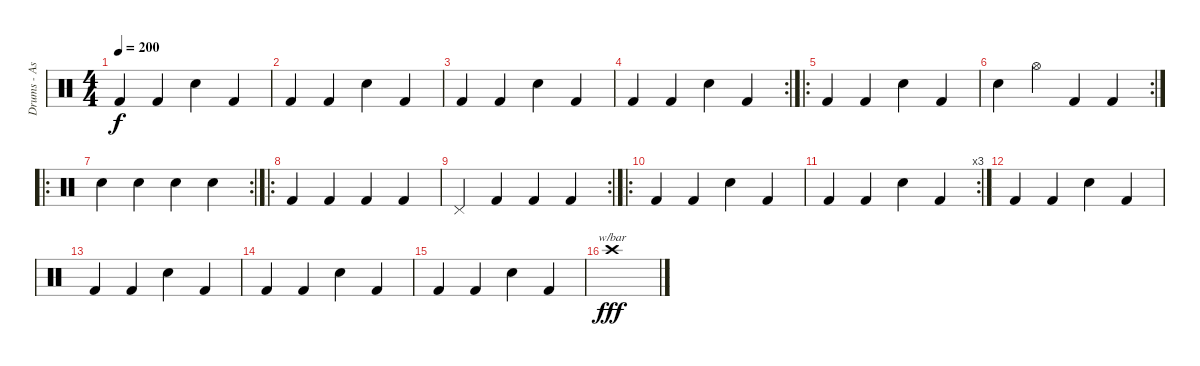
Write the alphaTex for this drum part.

\track ("Drums - Ash" "Drums - As") {instrument percussion}
\staff {score}
\articulation defaults
\ts (4 4)
\tempo 200
\clef neutral
\ks c "Kick (hit) 2".4{dy f} "Kick (hit) 2".4 "Snare (hit) 2".4 "Kick (hit) 2".4
|
"Kick (hit) 2".4 "Kick (hit) 2".4 "Snare (hit) 2".4 "Kick (hit) 2".4 |
"Kick (hit) 2".4 "Kick (hit) 2".4 "Snare (hit) 2".4 "Kick (hit) 2".4 |
\rc 2 "Kick (hit) 2".4 "Kick (hit) 2".4 "Snare (hit) 2".4 "Kick (hit) 2".4
|
\ro "Kick (hit) 2".4 "Kick (hit) 2".4 "Snare (hit) 2".4 "Kick (hit) 2".4
|
\rc 2 "Electric Snare (hit)".4 "Hi-Hat (open)".4 "Kick (hit) 2".4 "Kick (hit) 2".4
|
\ro
\rc 2 "Electric Snare (hit)".4 "Electric Snare (hit)".4 "Electric Snare (hit)".4 "Electric Snare (hit)".4
|
\ro "Kick (hit) 2".4 "Kick (hit) 2".4 "Kick (hit) 2".4 "Kick (hit) 2".4
|
\rc 2 "Pedal Hi-Hat (hit)".4 "Kick (hit) 2".4 "Kick (hit) 2".4 "Kick (hit) 2".4
|
\ro "Kick (hit) 2".4 "Kick (hit) 2".4 "Snare (hit) 2".4 "Kick (hit) 2".4
|
\rc 3 "Kick (hit) 2".4 "Kick (hit) 2".4 "Snare (hit) 2".4 "Kick (hit) 2".4
|
"Kick (hit) 2".4 "Kick (hit) 2".4 "Snare (hit) 2".4 "Kick (hit) 2".4 |
"Kick (hit) 2".4 "Kick (hit) 2".4 "Snare (hit) 2".4 "Kick (hit) 2".4 |
"Kick (hit) 2".4 "Kick (hit) 2".4 "Snare (hit) 2".4 "Kick (hit) 2".4 |
"Kick (hit) 2".4 "Kick (hit) 2".4 "Snare (hit) 2".4 "Kick (hit) 2".4 |
"Crash high (hit)".1{tbe (custom default 0 0 45 -24 60 -24) dy fff}
